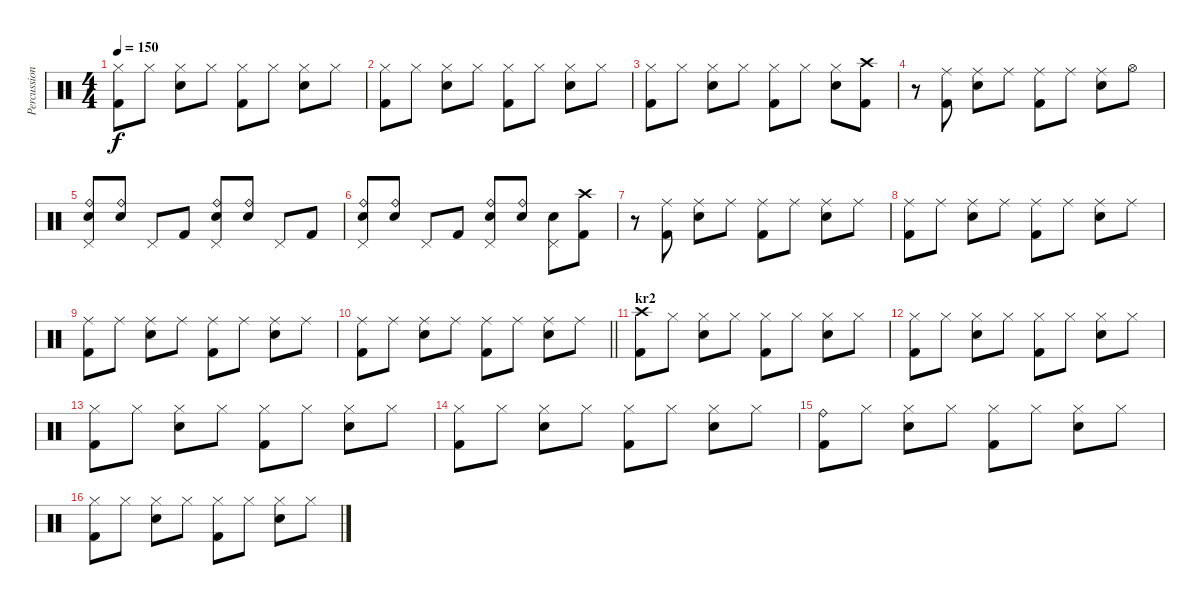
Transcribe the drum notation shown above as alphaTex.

\track ("Percussion" "Percussion") {instrument percussion}
\staff {score}
\articulation defaults
\ts (4 4)
\tempo 150
\clef neutral
\ks c
("Hi-Hat (closed)" "Kick (hit) 2").8{dy f} "Hi-Hat (closed)".8 ("Hi-Hat (closed)" "Electric Snare (hit)").8 "Hi-Hat (closed)".8 ("Hi-Hat (closed)" "Kick (hit) 2").8 "Hi-Hat (closed)".8 ("Hi-Hat (closed)" "Electric Snare (hit)").8 "Hi-Hat (closed)".8 |
("Hi-Hat (closed)" "Kick (hit) 2").8 "Hi-Hat (closed)".8 ("Hi-Hat (closed)" "Electric Snare (hit)").8 "Hi-Hat (closed)".8 ("Hi-Hat (closed)" "Kick (hit) 2").8 "Hi-Hat (closed)".8 ("Hi-Hat (closed)" "Electric Snare (hit)").8 "Hi-Hat (closed)".8 |
("Hi-Hat (closed)" "Kick (hit) 2").8 "Hi-Hat (closed)".8 ("Hi-Hat (closed)" "Electric Snare (hit)").8 "Hi-Hat (closed)".8 ("Hi-Hat (closed)" "Kick (hit) 2").8 "Hi-Hat (closed)".8 ("Hi-Hat (closed)" "Electric Snare (hit)").8 ("Crash high (hit)" "Kick (hit) 2").8 |
r.8 ("Ride (middle)" "Kick (hit) 2").8 ("Ride (middle)" "Electric Snare (hit)").8 "Ride (middle)".8 ("Ride (middle)" "Kick (hit) 2").8 "Ride (middle)".8 ("Ride (middle)" "Electric Snare (hit)").8 "Hi-Hat (open)".8 |
("Ride (bell)" "Electric Snare (hit)" "Pedal Hi-Hat (hit)").8 ("Ride (bell)" "Electric Snare (hit)").8 "Pedal Hi-Hat (hit)".8 "Kick (hit) 2".8 ("Ride (bell)" "Electric Snare (hit)" "Pedal Hi-Hat (hit)").8 ("Ride (bell)" "Electric Snare (hit)").8 "Pedal Hi-Hat (hit)".8 "Kick (hit) 2".8 |
("Ride (bell)" "Electric Snare (hit)" "Pedal Hi-Hat (hit)").8 ("Ride (bell)" "Electric Snare (hit)").8 "Pedal Hi-Hat (hit)".8 "Kick (hit) 2".8 ("Ride (bell)" "Electric Snare (hit)" "Pedal Hi-Hat (hit)").8 ("Ride (bell)" "Electric Snare (hit)").8 ("Electric Snare (hit)" "Pedal Hi-Hat (hit)").8 ("Crash high (hit)" "Kick (hit) 2").8 |
r.8 ("Ride (middle)" "Kick (hit) 2").8 ("Ride (middle)" "Electric Snare (hit)").8 "Ride (middle)".8 ("Ride (middle)" "Kick (hit) 2").8 "Ride (middle)".8 ("Ride (middle)" "Electric Snare (hit)").8 "Ride (middle)".8 |
("Ride (middle)" "Kick (hit) 2").8 "Ride (middle)".8 ("Ride (middle)" "Electric Snare (hit)").8 "Ride (middle)".8 ("Ride (middle)" "Kick (hit) 2").8 "Ride (middle)".8 ("Ride (middle)" "Electric Snare (hit)").8 "Ride (middle)".8 |
("Ride (middle)" "Kick (hit) 2").8 "Ride (middle)".8 ("Ride (middle)" "Electric Snare (hit)").8 "Ride (middle)".8 ("Ride (middle)" "Kick (hit) 2").8 "Ride (middle)".8 ("Ride (middle)" "Electric Snare (hit)").8 "Ride (middle)".8 |
\barLineRight lightlight
("Ride (middle)" "Kick (hit) 2").8 "Ride (middle)".8 ("Ride (middle)" "Electric Snare (hit)").8 "Ride (middle)".8 ("Ride (middle)" "Kick (hit) 2").8 "Ride (middle)".8 ("Ride (middle)" "Electric Snare (hit)").8 "Ride (middle)".8 |
\section ("" "kr2")
("Crash high (hit)" "Kick (hit) 2").8 "Hi-Hat (closed)".8 ("Hi-Hat (closed)" "Electric Snare (hit)").8 "Hi-Hat (closed)".8 ("Hi-Hat (closed)" "Kick (hit) 2").8 "Hi-Hat (closed)".8 ("Hi-Hat (closed)" "Electric Snare (hit)").8 "Hi-Hat (closed)".8 |
("Hi-Hat (closed)" "Kick (hit) 2").8 "Hi-Hat (closed)".8 ("Hi-Hat (closed)" "Electric Snare (hit)").8 "Hi-Hat (closed)".8 ("Hi-Hat (closed)" "Kick (hit) 2").8 "Hi-Hat (closed)".8 ("Hi-Hat (closed)" "Electric Snare (hit)").8 "Hi-Hat (closed)".8 |
("Hi-Hat (closed)" "Kick (hit) 2").8 "Hi-Hat (closed)".8 ("Hi-Hat (closed)" "Electric Snare (hit)").8 "Hi-Hat (closed)".8 ("Hi-Hat (closed)" "Kick (hit) 2").8 "Hi-Hat (closed)".8 ("Hi-Hat (closed)" "Electric Snare (hit)").8 "Hi-Hat (closed)".8 |
("Hi-Hat (closed)" "Kick (hit) 2").8 "Hi-Hat (closed)".8 ("Hi-Hat (closed)" "Electric Snare (hit)").8 "Hi-Hat (closed)".8 ("Hi-Hat (closed)" "Kick (hit) 2").8 "Hi-Hat (closed)".8 ("Hi-Hat (closed)" "Electric Snare (hit)").8 "Hi-Hat (closed)".8 |
("Ride (bell)" "Kick (hit) 2").8 "Hi-Hat (closed)".8 ("Hi-Hat (closed)" "Electric Snare (hit)").8 "Hi-Hat (closed)".8 ("Hi-Hat (closed)" "Kick (hit) 2").8 "Hi-Hat (closed)".8 ("Hi-Hat (closed)" "Electric Snare (hit)").8 "Hi-Hat (closed)".8 |
("Hi-Hat (closed)" "Kick (hit) 2").8 "Hi-Hat (closed)".8 ("Hi-Hat (closed)" "Electric Snare (hit)").8 "Hi-Hat (closed)".8 ("Hi-Hat (closed)" "Kick (hit) 2").8 "Hi-Hat (closed)".8 ("Hi-Hat (closed)" "Electric Snare (hit)").8 "Hi-Hat (closed)".8
